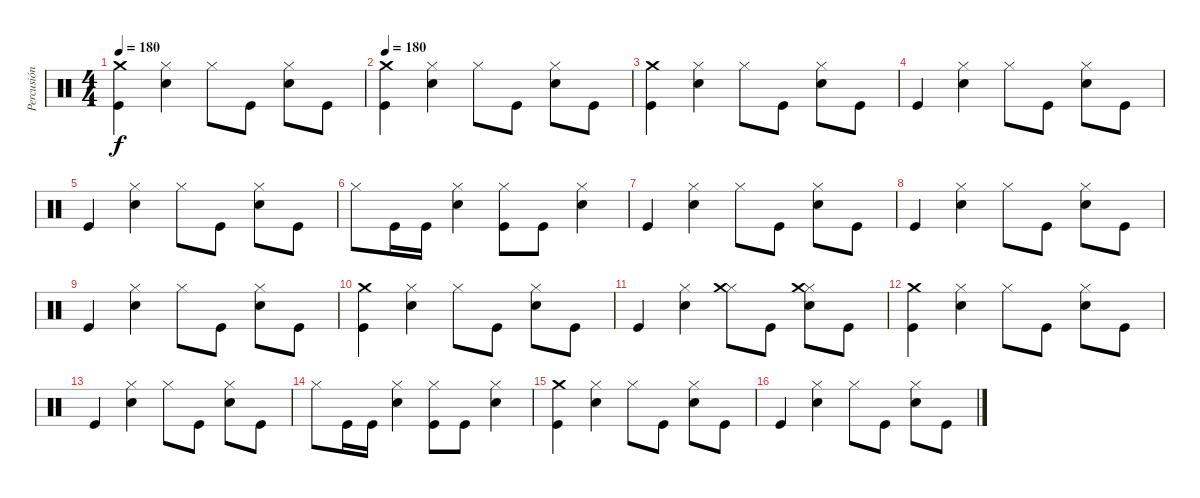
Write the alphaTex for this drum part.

\track ("Percusión" "Percusión") {instrument percussion}
\staff {score}
\articulation defaults
\ts (4 4)
\tempo 180
\clef neutral
\ks c
("Kick (hit)" "Crash medium (hit)").4{dy f} ("Snare (hit) 2" "Hi-Hat (closed)").4 "Hi-Hat (closed)".8 "Kick (hit)".8 ("Snare (hit) 2" "Hi-Hat (closed)").8 "Kick (hit)".8 |
\tempo 180
("Kick (hit)" "Crash medium (hit)").4 ("Snare (hit) 2" "Hi-Hat (closed)").4 "Hi-Hat (closed)".8 "Kick (hit)".8 ("Snare (hit) 2" "Hi-Hat (closed)").8 "Kick (hit)".8 |
("Kick (hit)" "Crash medium (hit)").4 ("Snare (hit) 2" "Hi-Hat (closed)").4 "Hi-Hat (closed)".8 "Kick (hit)".8 ("Snare (hit) 2" "Hi-Hat (closed)").8 "Kick (hit)".8 |
"Kick (hit)".4 ("Snare (hit) 2" "Hi-Hat (closed)").4 "Hi-Hat (closed)".8 "Kick (hit)".8 ("Snare (hit) 2" "Hi-Hat (closed)").8 "Kick (hit)".8 |
"Kick (hit)".4 ("Snare (hit) 2" "Hi-Hat (closed)").4 "Hi-Hat (closed)".8 "Kick (hit)".8 ("Snare (hit) 2" "Hi-Hat (closed)").8 "Kick (hit)".8 |
"Hi-Hat (closed)".8 "Kick (hit)".16 "Kick (hit)".16 ("Snare (hit) 2" "Hi-Hat (closed)").4 ("Kick (hit)" "Hi-Hat (closed)").8 "Kick (hit)".8 ("Snare (hit) 2" "Hi-Hat (closed)").4 |
"Kick (hit)".4 ("Snare (hit) 2" "Hi-Hat (closed)").4 "Hi-Hat (closed)".8 "Kick (hit)".8 ("Snare (hit) 2" "Hi-Hat (closed)").8 "Kick (hit)".8 |
"Kick (hit)".4 ("Snare (hit) 2" "Hi-Hat (closed)").4 "Hi-Hat (closed)".8 "Kick (hit)".8 ("Snare (hit) 2" "Hi-Hat (closed)").8 "Kick (hit)".8 |
"Kick (hit)".4 ("Snare (hit) 2" "Hi-Hat (closed)").4 "Hi-Hat (closed)".8 "Kick (hit)".8 ("Snare (hit) 2" "Hi-Hat (closed)").8 "Kick (hit)".8 |
("Kick (hit)" "Crash medium (hit)").4 ("Snare (hit) 2" "Hi-Hat (closed)").4 "Hi-Hat (closed)".8 "Kick (hit)".8 ("Snare (hit) 2" "Hi-Hat (closed)").8 "Kick (hit)".8 |
"Kick (hit)".4 ("Snare (hit) 2" "Hi-Hat (closed)").4 ("Hi-Hat (closed)" "Crash medium (hit)").8 "Kick (hit)".8 ("Snare (hit) 2" "Hi-Hat (closed)" "Crash medium (hit)").8 "Kick (hit)".8 |
("Kick (hit)" "Crash medium (hit)").4 ("Snare (hit) 2" "Hi-Hat (closed)").4 "Hi-Hat (closed)".8 "Kick (hit)".8 ("Snare (hit) 2" "Hi-Hat (closed)").8 "Kick (hit)".8 |
"Kick (hit)".4 ("Snare (hit) 2" "Hi-Hat (closed)").4 "Hi-Hat (closed)".8 "Kick (hit)".8 ("Snare (hit) 2" "Hi-Hat (closed)").8 "Kick (hit)".8 |
"Hi-Hat (closed)".8 "Kick (hit)".16 "Kick (hit)".16 ("Snare (hit) 2" "Hi-Hat (closed)").4 ("Kick (hit)" "Hi-Hat (closed)").8 "Kick (hit)".8 ("Snare (hit) 2" "Hi-Hat (closed)").4 |
("Kick (hit)" "Crash medium (hit)").4 ("Snare (hit) 2" "Hi-Hat (closed)").4 "Hi-Hat (closed)".8 "Kick (hit)".8 ("Snare (hit) 2" "Hi-Hat (closed)").8 "Kick (hit)".8 |
"Kick (hit)".4 ("Snare (hit) 2" "Hi-Hat (closed)").4 "Hi-Hat (closed)".8 "Kick (hit)".8 ("Snare (hit) 2" "Hi-Hat (closed)").8 "Kick (hit)".8
